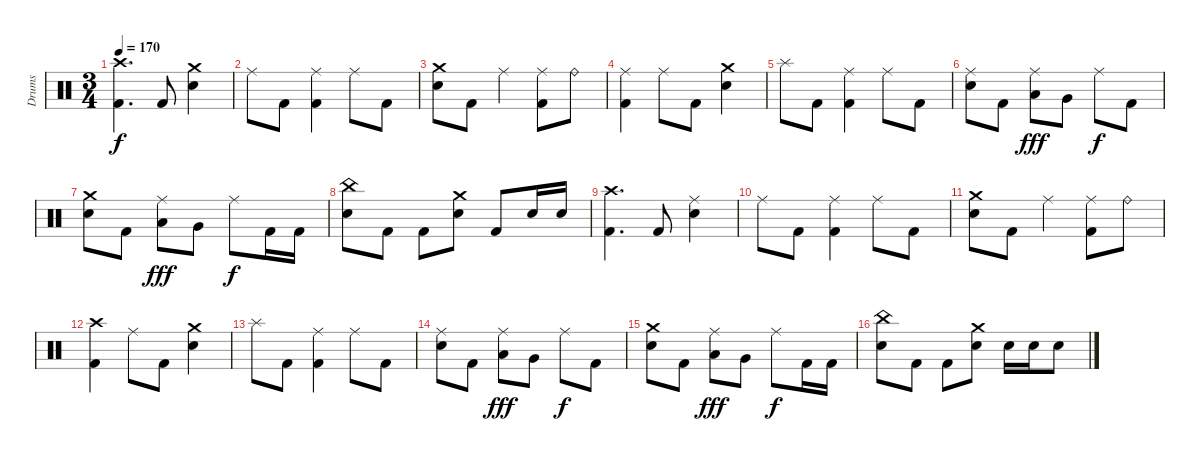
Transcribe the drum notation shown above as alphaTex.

\track ("Drums" "Drums") {instrument percussion}
\staff {score}
\articulation defaults
\ts (3 4)
\tempo 170
\clef neutral
\ks c
("Crash high (hit)" "Kick (hit) 2").4{d dy f} "Kick (hit) 2".8 ("Crash medium (hit)" "Electric Snare (hit)").4 |
"Ride (middle)".8 "Kick (hit) 2".8 ("Ride (middle)" "Kick (hit) 2").4 "Ride (middle)".8 "Kick (hit) 2".8 |
("Crash medium (hit)" "Electric Snare (hit)").8 "Kick (hit) 2".8 "Ride (middle)".4 ("Ride (middle)" "Kick (hit) 2").8 "Ride (bell)".8 |
("Ride (middle)" "Kick (hit) 2").4 "Ride (middle)".8 "Kick (hit) 2".8 ("Crash medium (hit)" "Electric Snare (hit)").4 |
"Splash (hit)".8 "Kick (hit) 2".8 ("Ride (middle)" "Kick (hit) 2").4 "Ride (middle)".8 "Kick (hit) 2".8 |
("Ride (middle)" "Electric Snare (hit)").8 "Kick (hit) 2".8 ("Ride (middle)" "Low Tom (hit)").8{dy fff} "Very Low Tom (hit)".8 "Ride (middle)".8{dy f} "Kick (hit) 2".8 |
("Crash medium (hit)" "Electric Snare (hit)").8 "Kick (hit) 2".8 ("Ride (middle)" "Low Tom (hit)").8{dy fff} "Very Low Tom (hit)".8 "Ride (middle)".8{dy f} "Kick (hit) 2".16 "Kick (hit) 2".16 |
("China (hit)" "Electric Snare (hit)").8 "Kick (hit) 2".8 "Kick (hit) 2".8 ("Crash medium (hit)" "Electric Snare (hit)").8 "Kick (hit) 2".8 "Electric Snare (hit)".16 "Electric Snare (hit)".16 |
("Crash high (hit)" "Kick (hit) 2").4{d} "Kick (hit) 2".8 ("Ride (middle)" "Electric Snare (hit)").4 |
"Ride (middle)".8 "Kick (hit) 2".8 ("Ride (middle)" "Kick (hit) 2").4 "Ride (middle)".8 "Kick (hit) 2".8 |
("Crash medium (hit)" "Electric Snare (hit)").8 "Kick (hit) 2".8 "Ride (middle)".4 ("Ride (middle)" "Kick (hit) 2").8 "Ride (bell)".8 |
("Crash high (hit)" "Kick (hit) 2").4 "Ride (middle)".8 "Kick (hit) 2".8 ("Crash medium (hit)" "Electric Snare (hit)").4 |
"Splash (hit)".8 "Kick (hit) 2".8 ("Ride (middle)" "Kick (hit) 2").4 "Ride (middle)".8 "Kick (hit) 2".8 |
("Ride (middle)" "Electric Snare (hit)").8 "Kick (hit) 2".8 ("Ride (middle)" "Low Tom (hit)").8{dy fff} "Very Low Tom (hit)".8 "Ride (middle)".8{dy f} "Kick (hit) 2".8 |
("Crash medium (hit)" "Electric Snare (hit)").8 "Kick (hit) 2".8 ("Ride (middle)" "Low Tom (hit)").8{dy fff} "Very Low Tom (hit)".8 "Ride (middle)".8{dy f} "Kick (hit) 2".16 "Kick (hit) 2".16 |
("China (hit)" "Electric Snare (hit)").8 "Kick (hit) 2".8 "Kick (hit) 2".8 ("Crash medium (hit)" "Electric Snare (hit)").8 "Electric Snare (hit)".16 "Electric Snare (hit)".16 "Electric Snare (hit)".8
